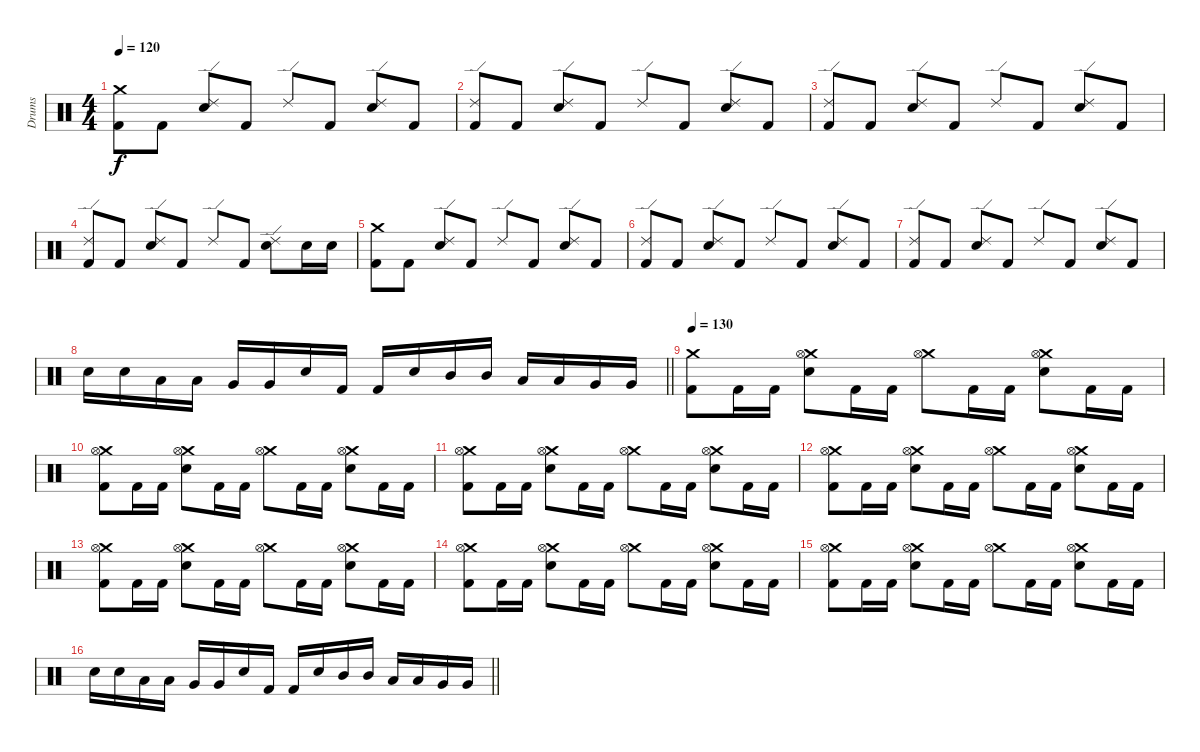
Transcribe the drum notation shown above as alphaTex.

\track ("Drums" "Drums") {instrument percussion}
\staff {score}
\articulation defaults
\ts (4 4)
\section ("" "")
\tempo 120
\clef neutral
\ks c
("Crash medium (hit)" "Kick (hit) 2").8{dy f} "Kick (hit) 2".8 ("Ride (edge) 2" "Electric Snare (hit)").8 "Kick (hit) 2".8 "Ride (edge) 2".8 "Kick (hit) 2".8 ("Ride (edge) 2" "Electric Snare (hit)").8 "Kick (hit) 2".8 |
("Ride (edge) 2" "Kick (hit) 2").8 "Kick (hit) 2".8 ("Ride (edge) 2" "Electric Snare (hit)").8 "Kick (hit) 2".8 "Ride (edge) 2".8 "Kick (hit) 2".8 ("Ride (edge) 2" "Electric Snare (hit)").8 "Kick (hit) 2".8 |
("Ride (edge) 2" "Kick (hit) 2").8 "Kick (hit) 2".8 ("Ride (edge) 2" "Electric Snare (hit)").8 "Kick (hit) 2".8 "Ride (edge) 2".8 "Kick (hit) 2".8 ("Ride (edge) 2" "Electric Snare (hit)").8 "Kick (hit) 2".8 |
("Ride (edge) 2" "Kick (hit) 2").8 "Kick (hit) 2".8 ("Ride (edge) 2" "Electric Snare (hit)").8 "Kick (hit) 2".8 "Ride (edge) 2".8 "Kick (hit) 2".8 ("Ride (edge) 2" "Electric Snare (hit)").8 "Electric Snare (hit)".16 "Electric Snare (hit)".16 |
("Crash medium (hit)" "Kick (hit) 2").8 "Kick (hit) 2".8 ("Ride (edge) 2" "Electric Snare (hit)").8 "Kick (hit) 2".8 "Ride (edge) 2".8 "Kick (hit) 2".8 ("Ride (edge) 2" "Electric Snare (hit)").8 "Kick (hit) 2".8 |
("Ride (edge) 2" "Kick (hit) 2").8 "Kick (hit) 2".8 ("Ride (edge) 2" "Electric Snare (hit)").8 "Kick (hit) 2".8 "Ride (edge) 2".8 "Kick (hit) 2".8 ("Ride (edge) 2" "Electric Snare (hit)").8 "Kick (hit) 2".8 |
("Ride (edge) 2" "Kick (hit) 2").8 "Kick (hit) 2".8 ("Ride (edge) 2" "Electric Snare (hit)").8 "Kick (hit) 2".8 "Ride (edge) 2".8 "Kick (hit) 2".8 ("Ride (edge) 2" "Electric Snare (hit)").8 "Kick (hit) 2".8 |
\barLineRight lightlight "Electric Snare (hit)".16 "Electric Snare (hit)".16 "Low Tom (hit)".16 "Low Tom (hit)".16 "Very Low Tom (hit)".16 "Very Low Tom (hit)".16 "Electric Snare (hit)".16 "Kick (hit) 2".16 "Kick (hit) 2".16 "Electric Snare (hit)".16 "Mid Tom (hit)".16 "Mid Tom (hit)".16 "Low Tom (hit)".16 "Low Tom (hit)".16 "Very Low Tom (hit)".16 "Very Low Tom (hit)".16
|
\section ("" "")
\tempo 130
("Crash medium (hit)" "Kick (hit) 2").8 "Kick (hit) 2".16 "Kick (hit) 2".16 ("Crash medium (hit)" "Hi-Hat (open)" "Electric Snare (hit)").8 "Kick (hit) 2".16 "Kick (hit) 2".16 ("Crash medium (hit)" "Hi-Hat (open)").8 "Kick (hit) 2".16 "Kick (hit) 2".16 ("Crash medium (hit)" "Hi-Hat (open)" "Electric Snare (hit)").8 "Kick (hit) 2".16 "Kick (hit) 2".16 |
("Crash medium (hit)" "Hi-Hat (open)" "Kick (hit) 2").8 "Kick (hit) 2".16 "Kick (hit) 2".16 ("Crash medium (hit)" "Hi-Hat (open)" "Electric Snare (hit)").8 "Kick (hit) 2".16 "Kick (hit) 2".16 ("Crash medium (hit)" "Hi-Hat (open)").8 "Kick (hit) 2".16 "Kick (hit) 2".16 ("Crash medium (hit)" "Hi-Hat (open)" "Electric Snare (hit)").8 "Kick (hit) 2".16 "Kick (hit) 2".16 |
("Crash medium (hit)" "Hi-Hat (open)" "Kick (hit) 2").8 "Kick (hit) 2".16 "Kick (hit) 2".16 ("Crash medium (hit)" "Hi-Hat (open)" "Electric Snare (hit)").8 "Kick (hit) 2".16 "Kick (hit) 2".16 ("Crash medium (hit)" "Hi-Hat (open)").8 "Kick (hit) 2".16 "Kick (hit) 2".16 ("Crash medium (hit)" "Hi-Hat (open)" "Electric Snare (hit)").8 "Kick (hit) 2".16 "Kick (hit) 2".16 |
("Crash medium (hit)" "Hi-Hat (open)" "Kick (hit) 2").8 "Kick (hit) 2".16 "Kick (hit) 2".16 ("Crash medium (hit)" "Hi-Hat (open)" "Electric Snare (hit)").8 "Kick (hit) 2".16 "Kick (hit) 2".16 ("Crash medium (hit)" "Hi-Hat (open)").8 "Kick (hit) 2".16 "Kick (hit) 2".16 ("Crash medium (hit)" "Hi-Hat (open)" "Electric Snare (hit)").8 "Kick (hit) 2".16 "Kick (hit) 2".16 |
("Crash medium (hit)" "Hi-Hat (open)" "Kick (hit) 2").8 "Kick (hit) 2".16 "Kick (hit) 2".16 ("Crash medium (hit)" "Hi-Hat (open)" "Electric Snare (hit)").8 "Kick (hit) 2".16 "Kick (hit) 2".16 ("Crash medium (hit)" "Hi-Hat (open)").8 "Kick (hit) 2".16 "Kick (hit) 2".16 ("Crash medium (hit)" "Hi-Hat (open)" "Electric Snare (hit)").8 "Kick (hit) 2".16 "Kick (hit) 2".16 |
("Crash medium (hit)" "Hi-Hat (open)" "Kick (hit) 2").8 "Kick (hit) 2".16 "Kick (hit) 2".16 ("Crash medium (hit)" "Hi-Hat (open)" "Electric Snare (hit)").8 "Kick (hit) 2".16 "Kick (hit) 2".16 ("Crash medium (hit)" "Hi-Hat (open)").8 "Kick (hit) 2".16 "Kick (hit) 2".16 ("Crash medium (hit)" "Hi-Hat (open)" "Electric Snare (hit)").8 "Kick (hit) 2".16 "Kick (hit) 2".16 |
("Crash medium (hit)" "Hi-Hat (open)" "Kick (hit) 2").8 "Kick (hit) 2".16 "Kick (hit) 2".16 ("Crash medium (hit)" "Hi-Hat (open)" "Electric Snare (hit)").8 "Kick (hit) 2".16 "Kick (hit) 2".16 ("Crash medium (hit)" "Hi-Hat (open)").8 "Kick (hit) 2".16 "Kick (hit) 2".16 ("Crash medium (hit)" "Hi-Hat (open)" "Electric Snare (hit)").8 "Kick (hit) 2".16 "Kick (hit) 2".16 |
\barLineRight lightlight "Electric Snare (hit)".16 "Electric Snare (hit)".16 "Low Tom (hit)".16 "Low Tom (hit)".16 "Very Low Tom (hit)".16 "Very Low Tom (hit)".16 "Electric Snare (hit)".16 "Kick (hit) 2".16 "Kick (hit) 2".16 "Electric Snare (hit)".16 "Mid Tom (hit)".16 "Mid Tom (hit)".16 "Low Tom (hit)".16 "Low Tom (hit)".16 "Very Low Tom (hit)".16 "Very Low Tom (hit)".16
